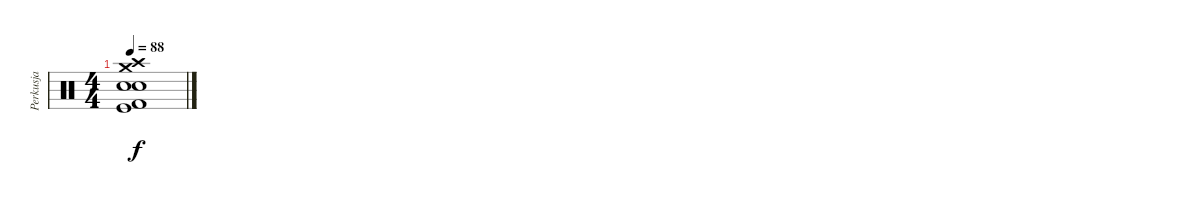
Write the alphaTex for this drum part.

\track ("Perkusja" "Perkusja") {instrument percussion}
\staff {score}
\articulation defaults
\ts (4 4)
\tempo 88
\clef neutral
\ks c
("Crash medium (hit)" "Crash high (hit)" "Kick (hit)" "Electric Snare (hit)" "Snare (hit) 2" "Kick (hit) 2").1{dy f}
